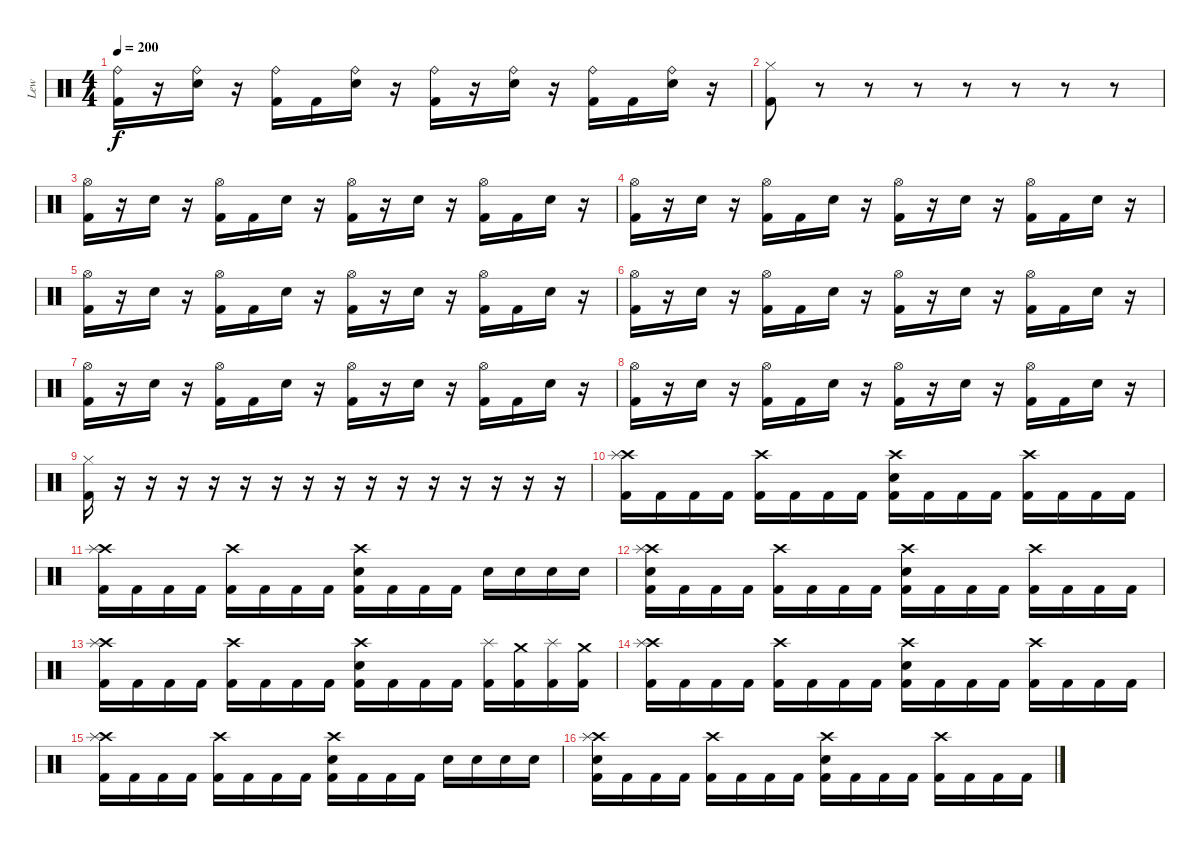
\track ("Lew" "Lew") {instrument percussion}
\staff {score}
\articulation defaults
\ts (4 4)
\tempo 200
\clef neutral
\ks c
("Ride (bell)" "Kick (hit) 2").16{dy f} r.16 ("Ride (bell)" "Electric Snare (hit)").16 r.16 ("Ride (bell)" "Kick (hit) 2").16 "Kick (hit) 2".16 ("Ride (bell)" "Electric Snare (hit)").16 r.16 ("Ride (bell)" "Kick (hit) 2").16 r.16 ("Ride (bell)" "Electric Snare (hit)").16 r.16 ("Ride (bell)" "Kick (hit) 2").16 "Kick (hit) 2".16 ("Ride (bell)" "Electric Snare (hit)").16 r.16 |
("Hi-Hat (closed)" "Kick (hit) 2").8 r.8 r.8 r.8 r.8 r.8 r.8 r.8 |
("Hi-Hat (open)" "Kick (hit) 2").16 r.16 "Electric Snare (hit)".16 r.16 ("Hi-Hat (open)" "Kick (hit) 2").16 "Kick (hit) 2".16 "Electric Snare (hit)".16 r.16 ("Hi-Hat (open)" "Kick (hit) 2").16 r.16 "Electric Snare (hit)".16 r.16 ("Hi-Hat (open)" "Kick (hit) 2").16 "Kick (hit) 2".16 "Electric Snare (hit)".16 r.16 |
("Hi-Hat (open)" "Kick (hit) 2").16 r.16 "Electric Snare (hit)".16 r.16 ("Hi-Hat (open)" "Kick (hit) 2").16 "Kick (hit) 2".16 "Electric Snare (hit)".16 r.16 ("Hi-Hat (open)" "Kick (hit) 2").16 r.16 "Electric Snare (hit)".16 r.16 ("Hi-Hat (open)" "Kick (hit) 2").16 "Kick (hit) 2".16 "Electric Snare (hit)".16 r.16 |
("Hi-Hat (open)" "Kick (hit) 2").16 r.16 "Electric Snare (hit)".16 r.16 ("Hi-Hat (open)" "Kick (hit) 2").16 "Kick (hit) 2".16 "Electric Snare (hit)".16 r.16 ("Hi-Hat (open)" "Kick (hit) 2").16 r.16 "Electric Snare (hit)".16 r.16 ("Hi-Hat (open)" "Kick (hit) 2").16 "Kick (hit) 2".16 "Electric Snare (hit)".16 r.16 |
("Hi-Hat (open)" "Kick (hit) 2").16 r.16 "Electric Snare (hit)".16 r.16 ("Hi-Hat (open)" "Kick (hit) 2").16 "Kick (hit) 2".16 "Electric Snare (hit)".16 r.16 ("Hi-Hat (open)" "Kick (hit) 2").16 r.16 "Electric Snare (hit)".16 r.16 ("Hi-Hat (open)" "Kick (hit) 2").16 "Kick (hit) 2".16 "Electric Snare (hit)".16 r.16 |
("Hi-Hat (open)" "Kick (hit) 2").16 r.16 "Electric Snare (hit)".16 r.16 ("Hi-Hat (open)" "Kick (hit) 2").16 "Kick (hit) 2".16 "Electric Snare (hit)".16 r.16 ("Hi-Hat (open)" "Kick (hit) 2").16 r.16 "Electric Snare (hit)".16 r.16 ("Hi-Hat (open)" "Kick (hit) 2").16 "Kick (hit) 2".16 "Electric Snare (hit)".16 r.16 |
("Hi-Hat (open)" "Kick (hit) 2").16 r.16 "Electric Snare (hit)".16 r.16 ("Hi-Hat (open)" "Kick (hit) 2").16 "Kick (hit) 2".16 "Electric Snare (hit)".16 r.16 ("Hi-Hat (open)" "Kick (hit) 2").16 r.16 "Electric Snare (hit)".16 r.16 ("Hi-Hat (open)" "Kick (hit) 2").16 "Kick (hit) 2".16 "Electric Snare (hit)".16 r.16 |
("Hi-Hat (closed)" "Kick (hit) 2").16 r.16 r.16 r.16 r.16 r.16 r.16 r.16 r.16 r.16 r.16 r.16 r.16 r.16 r.16 r.16 |
("Crash high (hit)" "Splash (hit)" "Kick (hit) 2").16 "Kick (hit) 2".16 "Kick (hit) 2".16 "Kick (hit) 2".16 ("Crash high (hit)" "Kick (hit) 2").16 "Kick (hit) 2".16 "Kick (hit) 2".16 "Kick (hit) 2".16 ("Crash high (hit)" "Electric Snare (hit)" "Kick (hit) 2").16 "Kick (hit) 2".16 "Kick (hit) 2".16 "Kick (hit) 2".16 ("Crash high (hit)" "Kick (hit) 2").16 "Kick (hit) 2".16 "Kick (hit) 2".16 "Kick (hit) 2".16 |
("Crash high (hit)" "Splash (hit)" "Kick (hit) 2").16 "Kick (hit) 2".16 "Kick (hit) 2".16 "Kick (hit) 2".16 ("Crash high (hit)" "Kick (hit) 2").16 "Kick (hit) 2".16 "Kick (hit) 2".16 "Kick (hit) 2".16 ("Crash high (hit)" "Electric Snare (hit)" "Kick (hit) 2").16 "Kick (hit) 2".16 "Kick (hit) 2".16 "Kick (hit) 2".16 "Electric Snare (hit)".16 "Electric Snare (hit)".16 "Electric Snare (hit)".16 "Electric Snare (hit)".16 |
("Crash high (hit)" "Splash (hit)" "Electric Snare (hit)" "Kick (hit) 2").16 "Kick (hit) 2".16 "Kick (hit) 2".16 "Kick (hit) 2".16 ("Crash high (hit)" "Kick (hit) 2").16 "Kick (hit) 2".16 "Kick (hit) 2".16 "Kick (hit) 2".16 ("Crash high (hit)" "Electric Snare (hit)" "Kick (hit) 2").16 "Kick (hit) 2".16 "Kick (hit) 2".16 "Kick (hit) 2".16 ("Crash high (hit)" "Kick (hit) 2").16 "Kick (hit) 2".16 "Kick (hit) 2".16 "Kick (hit) 2".16 |
("Crash high (hit)" "Splash (hit)" "Kick (hit) 2").16 "Kick (hit) 2".16 "Kick (hit) 2".16 "Kick (hit) 2".16 ("Crash high (hit)" "Kick (hit) 2").16 "Kick (hit) 2".16 "Kick (hit) 2".16 "Kick (hit) 2".16 ("Crash high (hit)" "Electric Snare (hit)" "Kick (hit) 2").16 "Kick (hit) 2".16 "Kick (hit) 2".16 "Kick (hit) 2".16 ("Splash (hit)" "Kick (hit) 2").16 ("Crash medium (hit)" "Kick (hit) 2").16 ("Splash (hit)" "Kick (hit) 2").16 ("Crash medium (hit)" "Kick (hit) 2").16 |
("Crash high (hit)" "Splash (hit)" "Kick (hit) 2").16 "Kick (hit) 2".16 "Kick (hit) 2".16 "Kick (hit) 2".16 ("Crash high (hit)" "Kick (hit) 2").16 "Kick (hit) 2".16 "Kick (hit) 2".16 "Kick (hit) 2".16 ("Crash high (hit)" "Electric Snare (hit)" "Kick (hit) 2").16 "Kick (hit) 2".16 "Kick (hit) 2".16 "Kick (hit) 2".16 ("Crash high (hit)" "Kick (hit) 2").16 "Kick (hit) 2".16 "Kick (hit) 2".16 "Kick (hit) 2".16 |
("Crash high (hit)" "Splash (hit)" "Kick (hit) 2").16 "Kick (hit) 2".16 "Kick (hit) 2".16 "Kick (hit) 2".16 ("Crash high (hit)" "Kick (hit) 2").16 "Kick (hit) 2".16 "Kick (hit) 2".16 "Kick (hit) 2".16 ("Crash high (hit)" "Electric Snare (hit)" "Kick (hit) 2").16 "Kick (hit) 2".16 "Kick (hit) 2".16 "Kick (hit) 2".16 "Electric Snare (hit)".16 "Electric Snare (hit)".16 "Electric Snare (hit)".16 "Electric Snare (hit)".16 |
("Crash high (hit)" "Splash (hit)" "Electric Snare (hit)" "Kick (hit) 2").16 "Kick (hit) 2".16 "Kick (hit) 2".16 "Kick (hit) 2".16 ("Crash high (hit)" "Kick (hit) 2").16 "Kick (hit) 2".16 "Kick (hit) 2".16 "Kick (hit) 2".16 ("Crash high (hit)" "Electric Snare (hit)" "Kick (hit) 2").16 "Kick (hit) 2".16 "Kick (hit) 2".16 "Kick (hit) 2".16 ("Crash high (hit)" "Kick (hit) 2").16 "Kick (hit) 2".16 "Kick (hit) 2".16 "Kick (hit) 2".16
